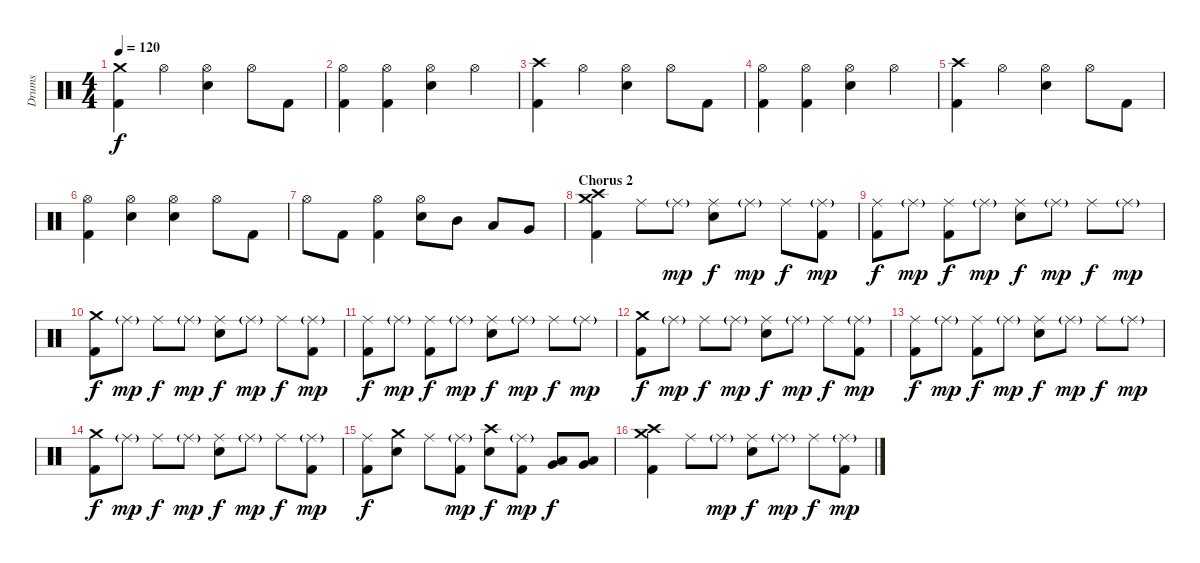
\track ("Drums" "Drums") {instrument percussion}
\staff {score}
\articulation defaults
\ts (4 4)
\tempo 120
\clef neutral
\ks c
("Crash medium (hit)" "Kick (hit) 2").4{dy f} "Hi-Hat (open)".4 ("Hi-Hat (open)" "Snare (hit) 2").4 "Hi-Hat (open)".8 "Kick (hit) 2".8 |
("Hi-Hat (open)" "Kick (hit) 2").4 ("Hi-Hat (open)" "Kick (hit) 2").4 ("Hi-Hat (open)" "Snare (hit) 2").4 "Hi-Hat (open)".4 |
("Crash high (hit)" "Kick (hit) 2").4 "Hi-Hat (open)".4 ("Hi-Hat (open)" "Snare (hit) 2").4 "Hi-Hat (open)".8 "Kick (hit) 2".8 |
("Hi-Hat (open)" "Kick (hit) 2").4 ("Hi-Hat (open)" "Kick (hit) 2").4 ("Hi-Hat (open)" "Snare (hit) 2").4 "Hi-Hat (open)".4 |
("Crash high (hit)" "Kick (hit) 2").4 "Hi-Hat (open)".4 ("Hi-Hat (open)" "Snare (hit) 2").4 "Hi-Hat (open)".8 "Kick (hit) 2".8 |
("Hi-Hat (open)" "Kick (hit) 2").4 ("Hi-Hat (open)" "Snare (hit) 2").4 ("Hi-Hat (open)" "Snare (hit) 2").4 "Hi-Hat (open)".8 "Kick (hit) 2".8 |
"Hi-Hat (open)".8 "Kick (hit) 2".8 ("Hi-Hat (open)" "Kick (hit) 2").4 ("Hi-Hat (open)" "Snare (hit) 2").8 "Mid Tom (hit)".8 "Low Tom (hit)".8 "Very Low Tom (hit)".8 |
\section ("" "Chorus 2")
("Crash medium (hit)" "Crash high (hit)" "Kick (hit) 2").4 "Ride (middle)".8 "Ride (middle)"{g}.8{dy mp} ("Ride (middle)" "Snare (hit) 2").8{dy f} "Ride (middle)"{g}.8{dy mp} "Ride (middle)".8{dy f} ("Ride (middle)"{g} "Kick (hit) 2").8{dy mp} |
("Ride (middle)" "Kick (hit) 2").8{dy f} "Ride (middle)"{g}.8{dy mp} ("Ride (middle)" "Kick (hit) 2").8{dy f} "Ride (middle)"{g}.8{dy mp} ("Ride (middle)" "Snare (hit) 2").8{dy f} "Ride (middle)"{g}.8{dy mp} "Ride (middle)".8{dy f} "Ride (middle)"{g}.8{dy mp} |
("Crash medium (hit)" "Kick (hit) 2").8{dy f} "Ride (middle)"{g}.8{dy mp} "Ride (middle)".8{dy f} "Ride (middle)"{g}.8{dy mp} ("Ride (middle)" "Snare (hit) 2").8{dy f} "Ride (middle)"{g}.8{dy mp} "Ride (middle)".8{dy f} ("Ride (middle)"{g} "Kick (hit) 2").8{dy mp} |
("Ride (middle)" "Kick (hit) 2").8{dy f} "Ride (middle)"{g}.8{dy mp} ("Ride (middle)" "Kick (hit) 2").8{dy f} "Ride (middle)"{g}.8{dy mp} ("Ride (middle)" "Snare (hit) 2").8{dy f} "Ride (middle)"{g}.8{dy mp} "Ride (middle)".8{dy f} "Ride (middle)"{g}.8{dy mp} |
("Crash medium (hit)" "Kick (hit) 2").8{dy f} "Ride (middle)"{g}.8{dy mp} "Ride (middle)".8{dy f} "Ride (middle)"{g}.8{dy mp} ("Ride (middle)" "Snare (hit) 2").8{dy f} "Ride (middle)"{g}.8{dy mp} "Ride (middle)".8{dy f} ("Ride (middle)"{g} "Kick (hit) 2").8{dy mp} |
("Ride (middle)" "Kick (hit) 2").8{dy f} "Ride (middle)"{g}.8{dy mp} ("Ride (middle)" "Kick (hit) 2").8{dy f} "Ride (middle)"{g}.8{dy mp} ("Ride (middle)" "Snare (hit) 2").8{dy f} "Ride (middle)"{g}.8{dy mp} "Ride (middle)".8{dy f} "Ride (middle)"{g}.8{dy mp} |
("Crash medium (hit)" "Kick (hit) 2").8{dy f} "Ride (middle)"{g}.8{dy mp} "Ride (middle)".8{dy f} "Ride (middle)"{g}.8{dy mp} ("Ride (middle)" "Snare (hit) 2").8{dy f} "Ride (middle)"{g}.8{dy mp} "Ride (middle)".8{dy f} ("Ride (middle)"{g} "Kick (hit) 2").8{dy mp} |
("Ride (middle)" "Kick (hit) 2").8{dy f} ("Crash medium (hit)" "Snare (hit) 2").8 "Ride (middle)".8 ("Ride (middle)"{g} "Kick (hit) 2").8{dy mp} ("Crash high (hit)" "Snare (hit) 2").8{dy f} ("Ride (middle)"{g} "Kick (hit) 2").8{dy mp} ("Low Tom (hit)" "Very Low Tom (hit)").8{dy f} ("Low Tom (hit)" "Very Low Tom (hit)").8 |
("Crash medium (hit)" "Crash high (hit)" "Kick (hit) 2").4 "Ride (middle)".8 "Ride (middle)"{g}.8{dy mp} ("Ride (middle)" "Snare (hit) 2").8{dy f} "Ride (middle)"{g}.8{dy mp} "Ride (middle)".8{dy f} ("Ride (middle)"{g} "Kick (hit) 2").8{dy mp}
